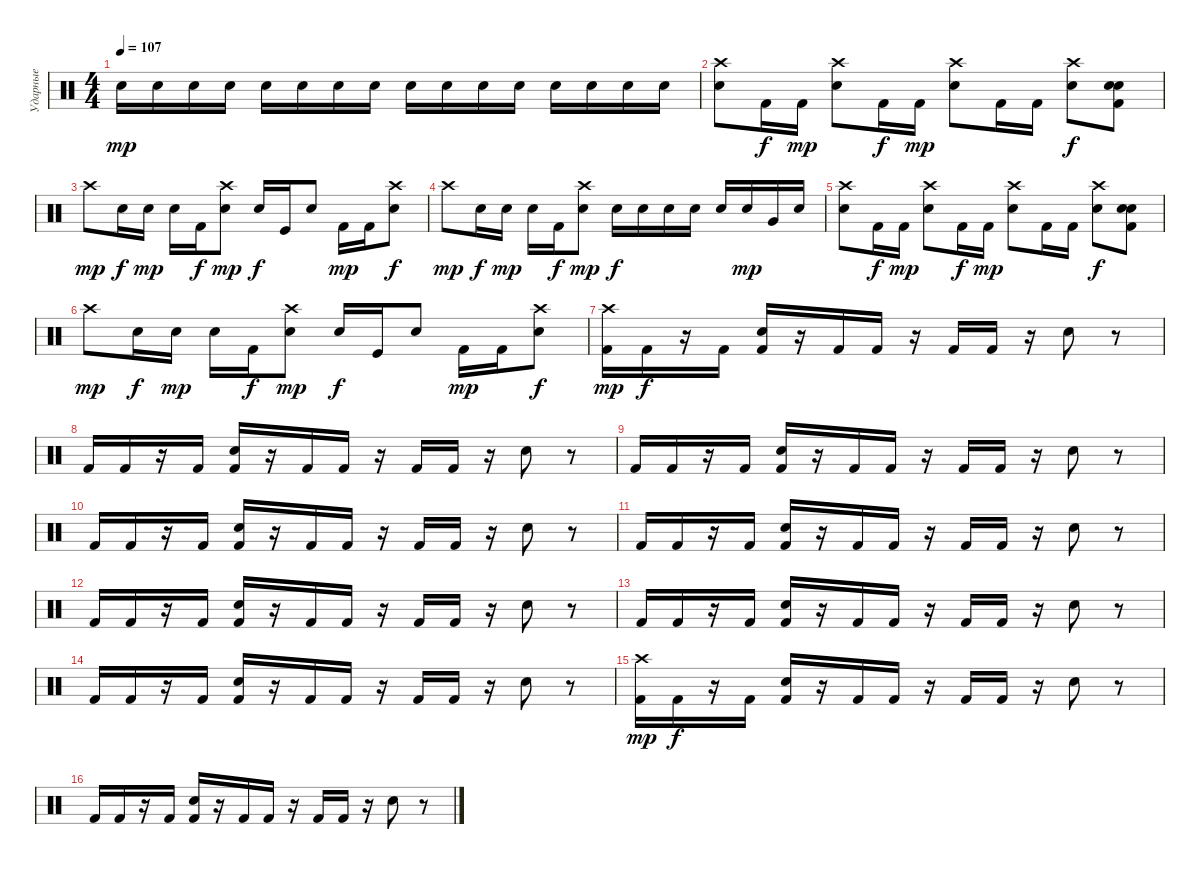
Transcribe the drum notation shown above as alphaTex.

\track ("Ударные" "Ударные") {instrument percussion}
\staff {score}
\articulation defaults
\ts (4 4)
\tempo 107
\clef neutral
\ks c "Electric Snare (hit)".16{dy mp} "Electric Snare (hit)".16 "Electric Snare (hit)".16 "Electric Snare (hit)".16 "Electric Snare (hit)".16 "Electric Snare (hit)".16 "Electric Snare (hit)".16 "Electric Snare (hit)".16 "Electric Snare (hit)".16 "Electric Snare (hit)".16 "Electric Snare (hit)".16 "Electric Snare (hit)".16 "Electric Snare (hit)".16 "Electric Snare (hit)".16 "Electric Snare (hit)".16 "Electric Snare (hit)".16
|
("Crash high (hit)" "Snare (hit) 2").8 "Kick (hit) 2".16{dy f} "Kick (hit) 2".16{dy mp} ("Crash high (hit)" "Snare (hit) 2").8 "Kick (hit) 2".16{dy f} "Kick (hit) 2".16{dy mp} ("Crash high (hit)" "Snare (hit) 2").8 "Kick (hit) 2".16 "Kick (hit) 2".16 ("Crash high (hit)" "Electric Snare (hit)").8{dy f} ("Electric Snare (hit)" "Snare (hit) 2" "Kick (hit) 2").8 |
"Crash high (hit)".8{dy mp} "Electric Snare (hit)".16{dy f} "Electric Snare (hit)".16{dy mp} "Electric Snare (hit)".16 "Kick (hit) 2".16{dy f} ("Crash high (hit)" "Snare (hit) 2").8{dy mp} "Electric Snare (hit)".16{dy f} "Kick (hit)".16 "Snare (hit) 2".8 "Kick (hit) 2".16{dy mp} "Kick (hit) 2".16 ("Crash high (hit)" "Electric Snare (hit)").8{dy f} |
"Crash high (hit)".8{dy mp} "Electric Snare (hit)".16{dy f} "Electric Snare (hit)".16{dy mp} "Electric Snare (hit)".16 "Kick (hit) 2".16{dy f} ("Crash high (hit)" "Snare (hit) 2").8{dy mp} "Electric Snare (hit)".16{dy f} "Electric Snare (hit)".16 "Electric Snare (hit)".16 "Electric Snare (hit)".16 "Snare (hit) 2".16 "Electric Snare (hit)".16{dy mp} "Very Low Tom (hit)".16 "Electric Snare (hit)".16 |
("Crash high (hit)" "Snare (hit) 2").8 "Kick (hit) 2".16{dy f} "Kick (hit) 2".16{dy mp} ("Crash high (hit)" "Snare (hit) 2").8 "Kick (hit) 2".16{dy f} "Kick (hit) 2".16{dy mp} ("Crash high (hit)" "Snare (hit) 2").8 "Kick (hit) 2".16 "Kick (hit) 2".16 ("Crash high (hit)" "Electric Snare (hit)").8{dy f} ("Electric Snare (hit)" "Snare (hit) 2" "Kick (hit) 2").8 |
"Crash high (hit)".8{dy mp} "Electric Snare (hit)".16{dy f} "Electric Snare (hit)".16{dy mp} "Electric Snare (hit)".16 "Kick (hit) 2".16{dy f} ("Crash high (hit)" "Snare (hit) 2").8{dy mp} "Electric Snare (hit)".16{dy f} "Kick (hit)".16 "Snare (hit) 2".8 "Kick (hit) 2".16{dy mp} "Kick (hit) 2".16 ("Crash high (hit)" "Electric Snare (hit)").8{dy f} |
("Crash high (hit)" "Kick (hit) 2").16{dy mp} "Kick (hit) 2".16{dy f} r.16 "Kick (hit) 2".16 ("Snare (hit) 2" "Kick (hit) 2").16 r.16 "Kick (hit) 2".16 "Kick (hit) 2".16 r.16 "Kick (hit) 2".16 "Kick (hit) 2".16 r.16 "Snare (hit) 2".8 r.8 |
"Kick (hit) 2".16 "Kick (hit) 2".16 r.16 "Kick (hit) 2".16 ("Snare (hit) 2" "Kick (hit) 2").16 r.16 "Kick (hit) 2".16 "Kick (hit) 2".16 r.16 "Kick (hit) 2".16 "Kick (hit) 2".16 r.16 "Snare (hit) 2".8 r.8 |
"Kick (hit) 2".16 "Kick (hit) 2".16 r.16 "Kick (hit) 2".16 ("Snare (hit) 2" "Kick (hit) 2").16 r.16 "Kick (hit) 2".16 "Kick (hit) 2".16 r.16 "Kick (hit) 2".16 "Kick (hit) 2".16 r.16 "Snare (hit) 2".8 r.8 |
"Kick (hit) 2".16 "Kick (hit) 2".16 r.16 "Kick (hit) 2".16 ("Snare (hit) 2" "Kick (hit) 2").16 r.16 "Kick (hit) 2".16 "Kick (hit) 2".16 r.16 "Kick (hit) 2".16 "Kick (hit) 2".16 r.16 "Snare (hit) 2".8 r.8 |
"Kick (hit) 2".16 "Kick (hit) 2".16 r.16 "Kick (hit) 2".16 ("Snare (hit) 2" "Kick (hit) 2").16 r.16 "Kick (hit) 2".16 "Kick (hit) 2".16 r.16 "Kick (hit) 2".16 "Kick (hit) 2".16 r.16 "Snare (hit) 2".8 r.8 |
"Kick (hit) 2".16 "Kick (hit) 2".16 r.16 "Kick (hit) 2".16 ("Snare (hit) 2" "Kick (hit) 2").16 r.16 "Kick (hit) 2".16 "Kick (hit) 2".16 r.16 "Kick (hit) 2".16 "Kick (hit) 2".16 r.16 "Snare (hit) 2".8 r.8 |
"Kick (hit) 2".16 "Kick (hit) 2".16 r.16 "Kick (hit) 2".16 ("Snare (hit) 2" "Kick (hit) 2").16 r.16 "Kick (hit) 2".16 "Kick (hit) 2".16 r.16 "Kick (hit) 2".16 "Kick (hit) 2".16 r.16 "Snare (hit) 2".8 r.8 |
"Kick (hit) 2".16 "Kick (hit) 2".16 r.16 "Kick (hit) 2".16 ("Snare (hit) 2" "Kick (hit) 2").16 r.16 "Kick (hit) 2".16 "Kick (hit) 2".16 r.16 "Kick (hit) 2".16 "Kick (hit) 2".16 r.16 "Snare (hit) 2".8 r.8 |
("Crash high (hit)" "Kick (hit) 2").16{dy mp} "Kick (hit) 2".16{dy f} r.16 "Kick (hit) 2".16 ("Snare (hit) 2" "Kick (hit) 2").16 r.16 "Kick (hit) 2".16 "Kick (hit) 2".16 r.16 "Kick (hit) 2".16 "Kick (hit) 2".16 r.16 "Snare (hit) 2".8 r.8 |
"Kick (hit) 2".16 "Kick (hit) 2".16 r.16 "Kick (hit) 2".16 ("Snare (hit) 2" "Kick (hit) 2").16 r.16 "Kick (hit) 2".16 "Kick (hit) 2".16 r.16 "Kick (hit) 2".16 "Kick (hit) 2".16 r.16 "Snare (hit) 2".8 r.8
